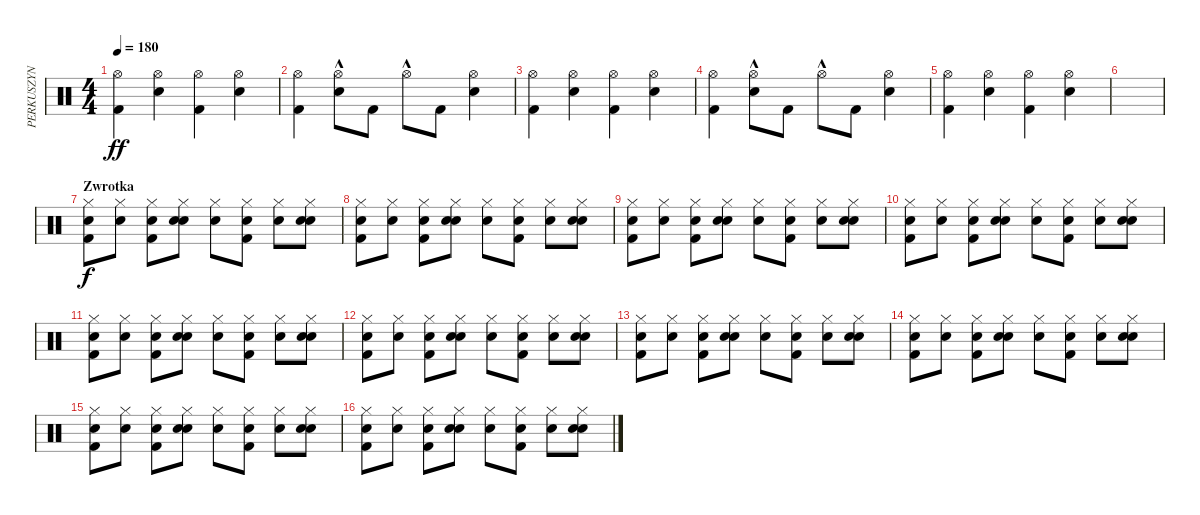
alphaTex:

\track ("PERKUSZYN" "PERKUSZYN") {instrument percussion}
\staff {score}
\articulation defaults
\ts (4 4)
\tempo 180
\clef neutral
\ks c
("Kick (hit) 2" "Hi-Hat (open)").4{dy ff} ("Snare (hit) 2" "Hi-Hat (open)").4 ("Kick (hit) 2" "Hi-Hat (open)").4 ("Snare (hit) 2" "Hi-Hat (open)").4 |
("Kick (hit) 2" "Hi-Hat (open)").4 ("Snare (hit) 2" "Hi-Hat (open)"{hac}).8 "Kick (hit) 2".8 "Hi-Hat (open)"{hac}.8 "Kick (hit) 2".8 ("Snare (hit) 2" "Hi-Hat (open)").4 |
("Kick (hit) 2" "Hi-Hat (open)").4 ("Snare (hit) 2" "Hi-Hat (open)").4 ("Kick (hit) 2" "Hi-Hat (open)").4 ("Snare (hit) 2" "Hi-Hat (open)").4 |
("Kick (hit) 2" "Hi-Hat (open)").4 ("Snare (hit) 2" "Hi-Hat (open)"{hac}).8 "Kick (hit) 2".8 "Hi-Hat (open)"{hac}.8 "Kick (hit) 2".8 ("Snare (hit) 2" "Hi-Hat (open)").4 |
("Kick (hit) 2" "Hi-Hat (open)").4 ("Snare (hit) 2" "Hi-Hat (open)").4 ("Kick (hit) 2" "Hi-Hat (open)").4 ("Snare (hit) 2" "Hi-Hat (open)").4 |
|
\section ("" "Zwrotka")
("Snare (hit)" "Kick (hit) 2" "Hi-Hat (closed)").8{dy f} ("Snare (hit)" "Hi-Hat (closed)").8 ("Snare (hit)" "Kick (hit) 2" "Hi-Hat (closed)").8 ("Snare (hit)" "Snare (hit) 2" "Hi-Hat (closed)").8 ("Snare (hit)" "Hi-Hat (closed)").8 ("Snare (hit)" "Kick (hit) 2" "Hi-Hat (closed)").8 ("Snare (hit)" "Hi-Hat (closed)").8 ("Snare (hit)" "Snare (hit) 2" "Hi-Hat (closed)").8 |
("Snare (hit)" "Kick (hit) 2" "Hi-Hat (closed)").8 ("Snare (hit)" "Hi-Hat (closed)").8 ("Snare (hit)" "Kick (hit) 2" "Hi-Hat (closed)").8 ("Snare (hit)" "Snare (hit) 2" "Hi-Hat (closed)").8 ("Snare (hit)" "Hi-Hat (closed)").8 ("Snare (hit)" "Kick (hit) 2" "Hi-Hat (closed)").8 ("Snare (hit)" "Hi-Hat (closed)").8 ("Snare (hit)" "Snare (hit) 2" "Hi-Hat (closed)").8 |
("Snare (hit)" "Kick (hit) 2" "Hi-Hat (closed)").8 ("Snare (hit)" "Hi-Hat (closed)").8 ("Snare (hit)" "Kick (hit) 2" "Hi-Hat (closed)").8 ("Snare (hit)" "Snare (hit) 2" "Hi-Hat (closed)").8 ("Snare (hit)" "Hi-Hat (closed)").8 ("Snare (hit)" "Kick (hit) 2" "Hi-Hat (closed)").8 ("Snare (hit)" "Hi-Hat (closed)").8 ("Snare (hit)" "Snare (hit) 2" "Hi-Hat (closed)").8 |
("Snare (hit)" "Kick (hit) 2" "Hi-Hat (closed)").8 ("Snare (hit)" "Hi-Hat (closed)").8 ("Snare (hit)" "Kick (hit) 2" "Hi-Hat (closed)").8 ("Snare (hit)" "Snare (hit) 2" "Hi-Hat (closed)").8 ("Snare (hit)" "Hi-Hat (closed)").8 ("Snare (hit)" "Kick (hit) 2" "Hi-Hat (closed)").8 ("Snare (hit)" "Hi-Hat (closed)").8 ("Snare (hit)" "Snare (hit) 2" "Hi-Hat (closed)").8 |
("Snare (hit)" "Kick (hit) 2" "Hi-Hat (closed)").8 ("Snare (hit)" "Hi-Hat (closed)").8 ("Snare (hit)" "Kick (hit) 2" "Hi-Hat (closed)").8 ("Snare (hit)" "Snare (hit) 2" "Hi-Hat (closed)").8 ("Snare (hit)" "Hi-Hat (closed)").8 ("Snare (hit)" "Kick (hit) 2" "Hi-Hat (closed)").8 ("Snare (hit)" "Hi-Hat (closed)").8 ("Snare (hit)" "Snare (hit) 2" "Hi-Hat (closed)").8 |
("Snare (hit)" "Kick (hit) 2" "Hi-Hat (closed)").8 ("Snare (hit)" "Hi-Hat (closed)").8 ("Snare (hit)" "Kick (hit) 2" "Hi-Hat (closed)").8 ("Snare (hit)" "Snare (hit) 2" "Hi-Hat (closed)").8 ("Snare (hit)" "Hi-Hat (closed)").8 ("Snare (hit)" "Kick (hit) 2" "Hi-Hat (closed)").8 ("Snare (hit)" "Hi-Hat (closed)").8 ("Snare (hit)" "Snare (hit) 2" "Hi-Hat (closed)").8 |
("Snare (hit)" "Kick (hit) 2" "Hi-Hat (closed)").8 ("Snare (hit)" "Hi-Hat (closed)").8 ("Snare (hit)" "Kick (hit) 2" "Hi-Hat (closed)").8 ("Snare (hit)" "Snare (hit) 2" "Hi-Hat (closed)").8 ("Snare (hit)" "Hi-Hat (closed)").8 ("Snare (hit)" "Kick (hit) 2" "Hi-Hat (closed)").8 ("Snare (hit)" "Hi-Hat (closed)").8 ("Snare (hit)" "Snare (hit) 2" "Hi-Hat (closed)").8 |
("Snare (hit)" "Kick (hit) 2" "Hi-Hat (closed)").8 ("Snare (hit)" "Hi-Hat (closed)").8 ("Snare (hit)" "Kick (hit) 2" "Hi-Hat (closed)").8 ("Snare (hit)" "Snare (hit) 2" "Hi-Hat (closed)").8 ("Snare (hit)" "Hi-Hat (closed)").8 ("Snare (hit)" "Kick (hit) 2" "Hi-Hat (closed)").8 ("Snare (hit)" "Hi-Hat (closed)").8 ("Snare (hit)" "Snare (hit) 2" "Hi-Hat (closed)").8 |
("Snare (hit)" "Kick (hit) 2" "Hi-Hat (closed)").8 ("Snare (hit)" "Hi-Hat (closed)").8 ("Snare (hit)" "Kick (hit) 2" "Hi-Hat (closed)").8 ("Snare (hit)" "Snare (hit) 2" "Hi-Hat (closed)").8 ("Snare (hit)" "Hi-Hat (closed)").8 ("Snare (hit)" "Kick (hit) 2" "Hi-Hat (closed)").8 ("Snare (hit)" "Hi-Hat (closed)").8 ("Snare (hit)" "Snare (hit) 2" "Hi-Hat (closed)").8 |
("Snare (hit)" "Kick (hit) 2" "Hi-Hat (closed)").8 ("Snare (hit)" "Hi-Hat (closed)").8 ("Snare (hit)" "Kick (hit) 2" "Hi-Hat (closed)").8 ("Snare (hit)" "Snare (hit) 2" "Hi-Hat (closed)").8 ("Snare (hit)" "Hi-Hat (closed)").8 ("Snare (hit)" "Kick (hit) 2" "Hi-Hat (closed)").8 ("Snare (hit)" "Hi-Hat (closed)").8 ("Snare (hit)" "Snare (hit) 2" "Hi-Hat (closed)").8
